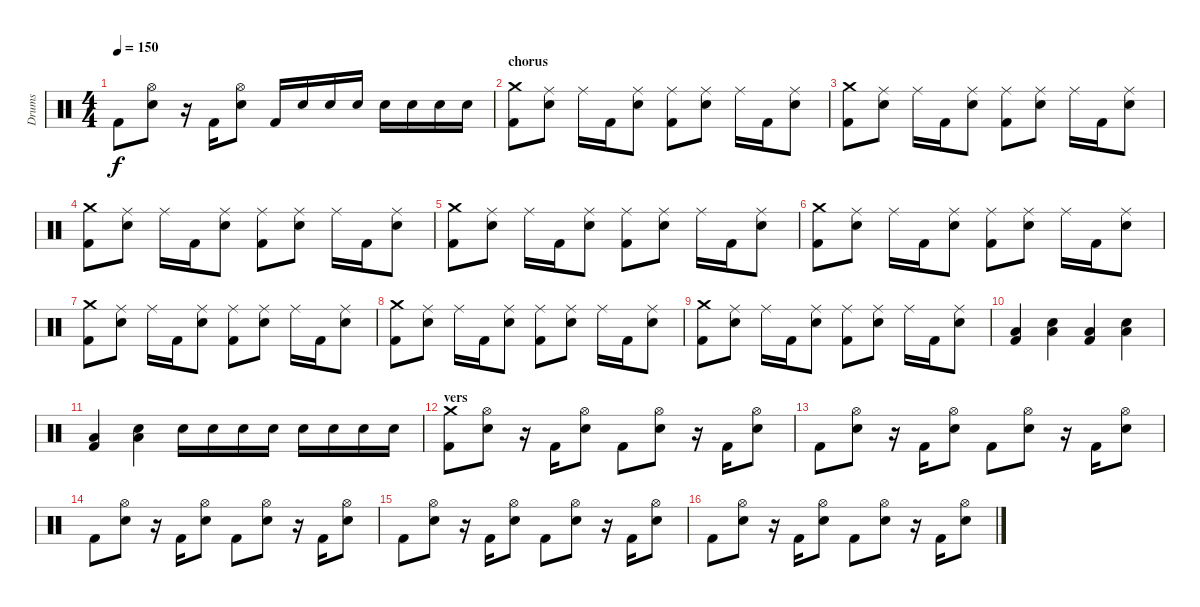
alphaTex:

\track ("Drums" "Drums") {instrument percussion}
\staff {score}
\articulation defaults
\ts (4 4)
\tempo 150
\clef neutral
\ks c "Kick (hit) 2".8{dy f}
("Hi-Hat (open)" "Electric Snare (hit)").8 r.16 "Kick (hit) 2".16 ("Hi-Hat (open)" "Electric Snare (hit)").8 "Kick (hit) 2".16 "Electric Snare (hit)".16 "Electric Snare (hit)".16 "Electric Snare (hit)".16 "Electric Snare (hit)".16 "Electric Snare (hit)".16 "Electric Snare (hit)".16 "Electric Snare (hit)".16 |
\section ("" "chorus")
("Crash medium (hit)" "Kick (hit) 2").8 ("Ride (middle)" "Electric Snare (hit)").8 "Ride (middle)".16 "Kick (hit) 2".16 ("Ride (middle)" "Electric Snare (hit)").8 ("Ride (middle)" "Kick (hit) 2").8 ("Ride (middle)" "Electric Snare (hit)").8 "Ride (middle)".16 "Kick (hit) 2".16 ("Ride (middle)" "Electric Snare (hit)").8 |
("Crash medium (hit)" "Kick (hit) 2").8 ("Ride (middle)" "Electric Snare (hit)").8 "Ride (middle)".16 "Kick (hit) 2".16 ("Ride (middle)" "Electric Snare (hit)").8 ("Ride (middle)" "Kick (hit) 2").8 ("Ride (middle)" "Electric Snare (hit)").8 "Ride (middle)".16 "Kick (hit) 2".16 ("Ride (middle)" "Electric Snare (hit)").8 |
("Crash medium (hit)" "Kick (hit) 2").8 ("Ride (middle)" "Electric Snare (hit)").8 "Ride (middle)".16 "Kick (hit) 2".16 ("Ride (middle)" "Electric Snare (hit)").8 ("Ride (middle)" "Kick (hit) 2").8 ("Ride (middle)" "Electric Snare (hit)").8 "Ride (middle)".16 "Kick (hit) 2".16 ("Ride (middle)" "Electric Snare (hit)").8 |
("Crash medium (hit)" "Kick (hit) 2").8 ("Ride (middle)" "Electric Snare (hit)").8 "Ride (middle)".16 "Kick (hit) 2".16 ("Ride (middle)" "Electric Snare (hit)").8 ("Ride (middle)" "Kick (hit) 2").8 ("Ride (middle)" "Electric Snare (hit)").8 "Ride (middle)".16 "Kick (hit) 2".16 ("Ride (middle)" "Electric Snare (hit)").8 |
("Crash medium (hit)" "Kick (hit) 2").8 ("Ride (middle)" "Electric Snare (hit)").8 "Ride (middle)".16 "Kick (hit) 2".16 ("Ride (middle)" "Electric Snare (hit)").8 ("Ride (middle)" "Kick (hit) 2").8 ("Ride (middle)" "Electric Snare (hit)").8 "Ride (middle)".16 "Kick (hit) 2".16 ("Ride (middle)" "Electric Snare (hit)").8 |
("Crash medium (hit)" "Kick (hit) 2").8 ("Ride (middle)" "Electric Snare (hit)").8 "Ride (middle)".16 "Kick (hit) 2".16 ("Ride (middle)" "Electric Snare (hit)").8 ("Ride (middle)" "Kick (hit) 2").8 ("Ride (middle)" "Electric Snare (hit)").8 "Ride (middle)".16 "Kick (hit) 2".16 ("Ride (middle)" "Electric Snare (hit)").8 |
("Crash medium (hit)" "Kick (hit) 2").8 ("Ride (middle)" "Electric Snare (hit)").8 "Ride (middle)".16 "Kick (hit) 2".16 ("Ride (middle)" "Electric Snare (hit)").8 ("Ride (middle)" "Kick (hit) 2").8 ("Ride (middle)" "Electric Snare (hit)").8 "Ride (middle)".16 "Kick (hit) 2".16 ("Ride (middle)" "Electric Snare (hit)").8 |
("Crash medium (hit)" "Kick (hit) 2").8 ("Ride (middle)" "Electric Snare (hit)").8 "Ride (middle)".16 "Kick (hit) 2".16 ("Ride (middle)" "Electric Snare (hit)").8 ("Ride (middle)" "Kick (hit) 2").8 ("Ride (middle)" "Electric Snare (hit)").8 "Ride (middle)".16 "Kick (hit) 2".16 ("Ride (middle)" "Electric Snare (hit)").8 |
("Low Floor Tom (hit)" "Kick (hit) 2").4 ("Low Floor Tom (hit)" "Electric Snare (hit)").4 ("Low Floor Tom (hit)" "Kick (hit) 2").4 ("Low Floor Tom (hit)" "Electric Snare (hit)").4 |
("Low Floor Tom (hit)" "Kick (hit) 2").4 ("Low Floor Tom (hit)" "Electric Snare (hit)").4 "Electric Snare (hit)".16 "Electric Snare (hit)".16 "Electric Snare (hit)".16 "Electric Snare (hit)".16 "Electric Snare (hit)".16 "Electric Snare (hit)".16 "Electric Snare (hit)".16 "Electric Snare (hit)".16 |
\section ("" "vers")
("Crash medium (hit)" "Kick (hit) 2").8 ("Hi-Hat (open)" "Electric Snare (hit)").8 r.16 "Kick (hit) 2".16 ("Hi-Hat (open)" "Electric Snare (hit)").8 "Kick (hit) 2".8 ("Hi-Hat (open)" "Electric Snare (hit)").8 r.16 "Kick (hit) 2".16 ("Hi-Hat (open)" "Electric Snare (hit)").8 |
"Kick (hit) 2".8 ("Hi-Hat (open)" "Electric Snare (hit)").8 r.16 "Kick (hit) 2".16 ("Hi-Hat (open)" "Electric Snare (hit)").8 "Kick (hit) 2".8 ("Hi-Hat (open)" "Electric Snare (hit)").8 r.16 "Kick (hit) 2".16 ("Hi-Hat (open)" "Electric Snare (hit)").8 |
"Kick (hit) 2".8 ("Hi-Hat (open)" "Electric Snare (hit)").8 r.16 "Kick (hit) 2".16 ("Hi-Hat (open)" "Electric Snare (hit)").8 "Kick (hit) 2".8 ("Hi-Hat (open)" "Electric Snare (hit)").8 r.16 "Kick (hit) 2".16 ("Hi-Hat (open)" "Electric Snare (hit)").8 |
"Kick (hit) 2".8 ("Hi-Hat (open)" "Electric Snare (hit)").8 r.16 "Kick (hit) 2".16 ("Hi-Hat (open)" "Electric Snare (hit)").8 "Kick (hit) 2".8 ("Hi-Hat (open)" "Electric Snare (hit)").8 r.16 "Kick (hit) 2".16 ("Hi-Hat (open)" "Electric Snare (hit)").8 |
"Kick (hit) 2".8 ("Hi-Hat (open)" "Electric Snare (hit)").8 r.16 "Kick (hit) 2".16 ("Hi-Hat (open)" "Electric Snare (hit)").8 "Kick (hit) 2".8 ("Hi-Hat (open)" "Electric Snare (hit)").8 r.16 "Kick (hit) 2".16 ("Hi-Hat (open)" "Electric Snare (hit)").8
